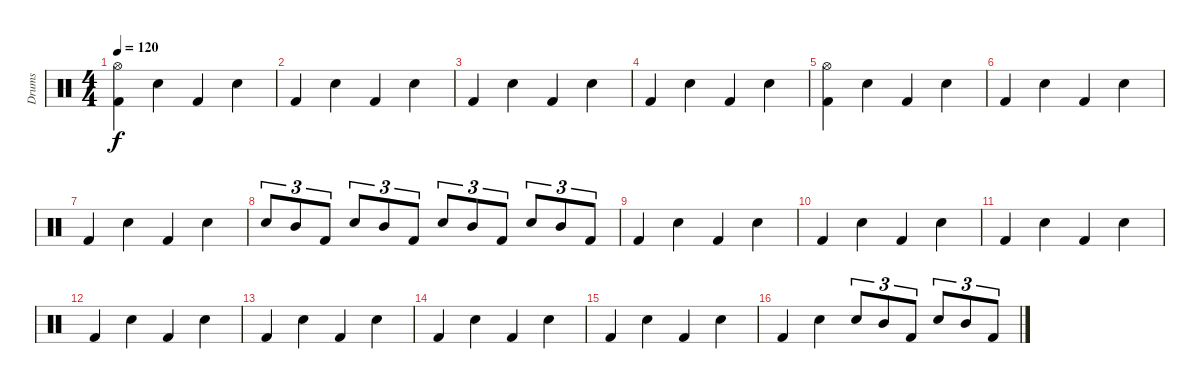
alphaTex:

\track ("Drums" "Drums") {instrument percussion}
\staff {score}
\articulation defaults
\ts (4 4)
\tempo 120
\clef neutral
\ks c
("Kick (hit) 2" "Hi-Hat (open)").4{dy f} "Electric Snare (hit)".4 "Kick (hit) 2".4 "Electric Snare (hit)".4 |
"Kick (hit) 2".4 "Electric Snare (hit)".4 "Kick (hit) 2".4 "Electric Snare (hit)".4 |
"Kick (hit) 2".4 "Electric Snare (hit)".4 "Kick (hit) 2".4 "Electric Snare (hit)".4 |
"Kick (hit) 2".4 "Electric Snare (hit)".4 "Kick (hit) 2".4 "Electric Snare (hit)".4 |
("Kick (hit) 2" "Hi-Hat (open)").4 "Electric Snare (hit)".4 "Kick (hit) 2".4 "Electric Snare (hit)".4 |
"Kick (hit) 2".4 "Electric Snare (hit)".4 "Kick (hit) 2".4 "Electric Snare (hit)".4 |
"Kick (hit) 2".4 "Electric Snare (hit)".4 "Kick (hit) 2".4 "Electric Snare (hit)".4 |
"Electric Snare (hit)".8{tu (3 2)} "Mid Tom (hit)".8{tu (3 2)} "Kick (hit) 2".8{tu (3 2)} "Electric Snare (hit)".8{tu (3 2)} "Mid Tom (hit)".8{tu (3 2)} "Kick (hit) 2".8{tu (3 2)} "Electric Snare (hit)".8{tu (3 2)} "Mid Tom (hit)".8{tu (3 2)} "Kick (hit) 2".8{tu (3 2)} "Electric Snare (hit)".8{tu (3 2)} "Mid Tom (hit)".8{tu (3 2)} "Kick (hit) 2".8{tu (3 2)} |
"Kick (hit) 2".4 "Electric Snare (hit)".4 "Kick (hit) 2".4 "Electric Snare (hit)".4 |
"Kick (hit) 2".4 "Electric Snare (hit)".4 "Kick (hit) 2".4 "Electric Snare (hit)".4 |
"Kick (hit) 2".4 "Electric Snare (hit)".4 "Kick (hit) 2".4 "Electric Snare (hit)".4 |
"Kick (hit) 2".4 "Electric Snare (hit)".4 "Kick (hit) 2".4 "Electric Snare (hit)".4 |
"Kick (hit) 2".4 "Electric Snare (hit)".4 "Kick (hit) 2".4 "Electric Snare (hit)".4 |
"Kick (hit) 2".4 "Electric Snare (hit)".4 "Kick (hit) 2".4 "Electric Snare (hit)".4 |
"Kick (hit) 2".4 "Electric Snare (hit)".4 "Kick (hit) 2".4 "Electric Snare (hit)".4 |
"Kick (hit) 2".4 "Electric Snare (hit)".4 "Electric Snare (hit)".8{tu (3 2)} "Mid Tom (hit)".8{tu (3 2)} "Kick (hit) 2".8{tu (3 2)} "Electric Snare (hit)".8{tu (3 2)} "Mid Tom (hit)".8{tu (3 2)} "Kick (hit) 2".8{tu (3 2)}
